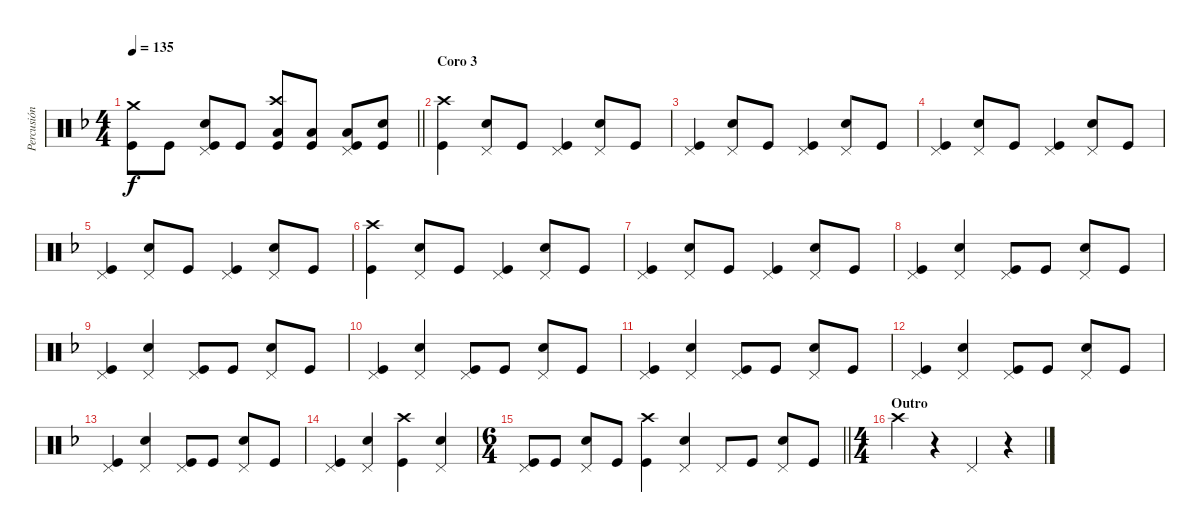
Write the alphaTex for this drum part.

\track ("Percusión" "Percusión") {instrument percussion}
\staff {score}
\articulation defaults
\ts (4 4)
\tempo 135
\clef neutral
\barLineRight lightlight
\ks dminor
("Crash medium (hit)" "Kick (hit)").8{dy f} "Kick (hit)".8 ("Pedal Hi-Hat (hit)" "Snare (hit) 2" "Kick (hit)").8 "Kick (hit)".8 ("Crash high (hit)" "Low Tom (hit)" "Kick (hit)").8 ("Low Tom (hit)" "Kick (hit)").8 ("Pedal Hi-Hat (hit)" "Low Tom (hit)" "Kick (hit)").8 ("Snare (hit) 2" "Kick (hit)").8 |
\section ("" "Coro 3")
("Crash high (hit)" "Kick (hit)").4 ("Pedal Hi-Hat (hit)" "Snare (hit) 2").8 "Kick (hit)".8 ("Pedal Hi-Hat (hit)" "Kick (hit)").4 ("Pedal Hi-Hat (hit)" "Snare (hit) 2").8 "Kick (hit)".8 |
("Pedal Hi-Hat (hit)" "Kick (hit)").4 ("Pedal Hi-Hat (hit)" "Snare (hit) 2").8 "Kick (hit)".8 ("Pedal Hi-Hat (hit)" "Kick (hit)").4 ("Pedal Hi-Hat (hit)" "Snare (hit) 2").8 "Kick (hit)".8 |
("Pedal Hi-Hat (hit)" "Kick (hit)").4 ("Pedal Hi-Hat (hit)" "Snare (hit) 2").8 "Kick (hit)".8 ("Pedal Hi-Hat (hit)" "Kick (hit)").4 ("Pedal Hi-Hat (hit)" "Snare (hit) 2").8 "Kick (hit)".8 |
("Pedal Hi-Hat (hit)" "Kick (hit)").4 ("Pedal Hi-Hat (hit)" "Snare (hit) 2").8 "Kick (hit)".8 ("Pedal Hi-Hat (hit)" "Kick (hit)").4 ("Pedal Hi-Hat (hit)" "Snare (hit) 2").8 "Kick (hit)".8 |
("Crash high (hit)" "Kick (hit)").4 ("Pedal Hi-Hat (hit)" "Snare (hit) 2").8 "Kick (hit)".8 ("Pedal Hi-Hat (hit)" "Kick (hit)").4 ("Pedal Hi-Hat (hit)" "Snare (hit) 2").8 "Kick (hit)".8 |
("Pedal Hi-Hat (hit)" "Kick (hit)").4 ("Pedal Hi-Hat (hit)" "Snare (hit) 2").8 "Kick (hit)".8 ("Pedal Hi-Hat (hit)" "Kick (hit)").4 ("Pedal Hi-Hat (hit)" "Snare (hit) 2").8 "Kick (hit)".8 |
("Pedal Hi-Hat (hit)" "Kick (hit)").4 ("Pedal Hi-Hat (hit)" "Snare (hit) 2").4 ("Pedal Hi-Hat (hit)" "Kick (hit)").8 "Kick (hit)".8 ("Pedal Hi-Hat (hit)" "Snare (hit) 2").8 "Kick (hit)".8 |
("Pedal Hi-Hat (hit)" "Kick (hit)").4 ("Pedal Hi-Hat (hit)" "Snare (hit) 2").4 ("Pedal Hi-Hat (hit)" "Kick (hit)").8 "Kick (hit)".8 ("Pedal Hi-Hat (hit)" "Snare (hit) 2").8 "Kick (hit)".8 |
("Pedal Hi-Hat (hit)" "Kick (hit)").4 ("Pedal Hi-Hat (hit)" "Snare (hit) 2").4 ("Pedal Hi-Hat (hit)" "Kick (hit)").8 "Kick (hit)".8 ("Pedal Hi-Hat (hit)" "Snare (hit) 2").8 "Kick (hit)".8 |
("Pedal Hi-Hat (hit)" "Kick (hit)").4 ("Pedal Hi-Hat (hit)" "Snare (hit) 2").4 ("Pedal Hi-Hat (hit)" "Kick (hit)").8 "Kick (hit)".8 ("Pedal Hi-Hat (hit)" "Snare (hit) 2").8 "Kick (hit)".8 |
("Pedal Hi-Hat (hit)" "Kick (hit)").4 ("Pedal Hi-Hat (hit)" "Snare (hit) 2").4 ("Pedal Hi-Hat (hit)" "Kick (hit)").8 "Kick (hit)".8 ("Pedal Hi-Hat (hit)" "Snare (hit) 2").8 "Kick (hit)".8 |
("Pedal Hi-Hat (hit)" "Kick (hit)").4 ("Pedal Hi-Hat (hit)" "Snare (hit) 2").4 ("Pedal Hi-Hat (hit)" "Kick (hit)").8 "Kick (hit)".8 ("Pedal Hi-Hat (hit)" "Snare (hit) 2").8 "Kick (hit)".8 |
("Pedal Hi-Hat (hit)" "Kick (hit)").4 ("Pedal Hi-Hat (hit)" "Snare (hit) 2").4 ("Crash high (hit)" "Kick (hit)").4 ("Pedal Hi-Hat (hit)" "Snare (hit) 2").4 |
\ts (6 4)
\barLineRight lightlight
("Pedal Hi-Hat (hit)" "Kick (hit)").8 "Kick (hit)".8 ("Pedal Hi-Hat (hit)" "Snare (hit) 2").8 "Kick (hit)".8 ("Crash high (hit)" "Kick (hit)").4 ("Pedal Hi-Hat (hit)" "Snare (hit) 2").4 "Pedal Hi-Hat (hit)".8 "Kick (hit)".8 ("Pedal Hi-Hat (hit)" "Snare (hit) 2").8 "Kick (hit)".8 |
\ts (4 4)
\section ("" "Outro")
"Crash high (hit)".4 r.4 "Pedal Hi-Hat (hit)".4 r.4
